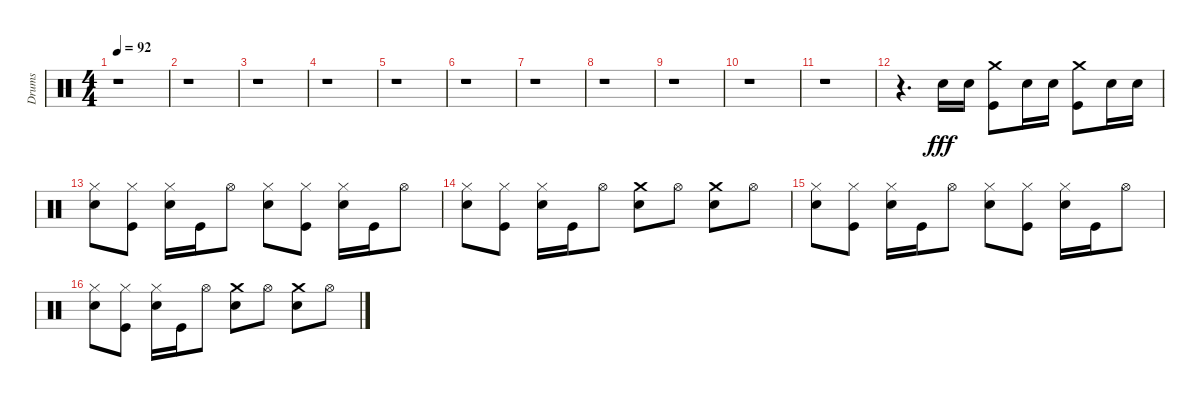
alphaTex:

\track ("Drums" "Drums") {instrument percussion}
\staff {score}
\articulation defaults
\ts (4 4)
\tempo 92
\clef neutral
\ks c
r.1{dy fff} |
r.1 |
r.1 |
r.1 |
r.1 |
r.1 |
r.1 |
r.1 |
r.1 |
r.1 |
r.1 |
r.4{d} "Snare (hit) 2".16 "Snare (hit) 2".16 ("Crash medium (hit)" "Kick (hit)").8 "Snare (hit) 2".16 "Snare (hit) 2".16 ("Crash medium (hit)" "Kick (hit)").8 "Snare (hit) 2".16 "Snare (hit) 2".16 |
("Hi-Hat (closed)" "Snare (hit) 2").8 ("Hi-Hat (closed)" "Kick (hit)").8 ("Hi-Hat (closed)" "Snare (hit) 2").16 "Kick (hit)".16 "Hi-Hat (open)".8 ("Hi-Hat (closed)" "Snare (hit) 2").8 ("Hi-Hat (closed)" "Kick (hit)").8 ("Hi-Hat (closed)" "Snare (hit) 2").16 "Kick (hit)".16 "Hi-Hat (open)".8 |
("Hi-Hat (closed)" "Snare (hit) 2").8 ("Hi-Hat (closed)" "Kick (hit)").8 ("Hi-Hat (closed)" "Snare (hit) 2").16 "Kick (hit)".16 "Hi-Hat (open)".8 ("Snare (hit) 2" "Crash medium (hit)").8 "Hi-Hat (open)".8 ("Snare (hit) 2" "Crash medium (hit)").8 "Hi-Hat (open)".8 |
("Hi-Hat (closed)" "Snare (hit) 2").8 ("Hi-Hat (closed)" "Kick (hit)").8 ("Hi-Hat (closed)" "Snare (hit) 2").16 "Kick (hit)".16 "Hi-Hat (open)".8 ("Hi-Hat (closed)" "Snare (hit) 2").8 ("Hi-Hat (closed)" "Kick (hit)").8 ("Hi-Hat (closed)" "Snare (hit) 2").16 "Kick (hit)".16 "Hi-Hat (open)".8 |
("Hi-Hat (closed)" "Snare (hit) 2").8 ("Hi-Hat (closed)" "Kick (hit)").8 ("Hi-Hat (closed)" "Snare (hit) 2").16 "Kick (hit)".16 "Hi-Hat (open)".8 ("Snare (hit) 2" "Crash medium (hit)").8 "Hi-Hat (open)".8 ("Snare (hit) 2" "Crash medium (hit)").8 "Hi-Hat (open)".8
